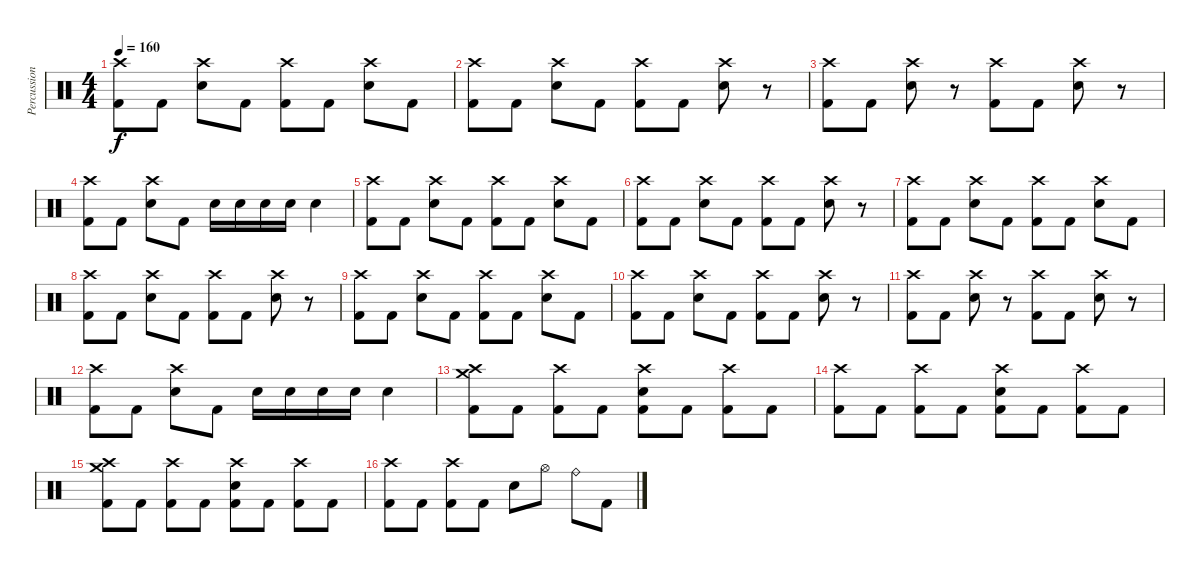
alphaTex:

\track ("Percussion" "Percussion") {instrument percussion}
\staff {score}
\articulation defaults
\ts (4 4)
\tempo 160
\clef neutral
\ks c
("Crash high (hit)" "Kick (hit) 2").8{dy f} "Kick (hit) 2".8 ("Crash high (hit)" "Snare (hit) 2").8 "Kick (hit) 2".8 ("Crash high (hit)" "Kick (hit) 2").8 "Kick (hit) 2".8 ("Crash high (hit)" "Snare (hit) 2").8 "Kick (hit) 2".8 |
("Crash high (hit)" "Kick (hit) 2").8 "Kick (hit) 2".8 ("Crash high (hit)" "Snare (hit) 2").8 "Kick (hit) 2".8 ("Crash high (hit)" "Kick (hit) 2").8 "Kick (hit) 2".8 ("Crash high (hit)" "Snare (hit) 2").8 r.8 |
("Crash high (hit)" "Kick (hit) 2").8 "Kick (hit) 2".8 ("Crash high (hit)" "Snare (hit) 2").8 r.8 ("Crash high (hit)" "Kick (hit) 2").8 "Kick (hit) 2".8 ("Crash high (hit)" "Snare (hit) 2").8 r.8 |
("Crash high (hit)" "Kick (hit) 2").8 "Kick (hit) 2".8 ("Crash high (hit)" "Snare (hit) 2").8 "Kick (hit) 2".8 "Snare (hit) 2".16 "Snare (hit) 2".16 "Snare (hit) 2".16 "Snare (hit) 2".16 "Snare (hit) 2".4 |
("Crash high (hit)" "Kick (hit) 2").8 "Kick (hit) 2".8 ("Crash high (hit)" "Snare (hit) 2").8 "Kick (hit) 2".8 ("Crash high (hit)" "Kick (hit) 2").8 "Kick (hit) 2".8 ("Crash high (hit)" "Snare (hit) 2").8 "Kick (hit) 2".8 |
("Crash high (hit)" "Kick (hit) 2").8 "Kick (hit) 2".8 ("Crash high (hit)" "Snare (hit) 2").8 "Kick (hit) 2".8 ("Crash high (hit)" "Kick (hit) 2").8 "Kick (hit) 2".8 ("Crash high (hit)" "Snare (hit) 2").8 r.8 |
("Crash high (hit)" "Kick (hit) 2").8 "Kick (hit) 2".8 ("Crash high (hit)" "Snare (hit) 2").8 "Kick (hit) 2".8 ("Crash high (hit)" "Kick (hit) 2").8 "Kick (hit) 2".8 ("Crash high (hit)" "Snare (hit) 2").8 "Kick (hit) 2".8 |
("Crash high (hit)" "Kick (hit) 2").8 "Kick (hit) 2".8 ("Crash high (hit)" "Snare (hit) 2").8 "Kick (hit) 2".8 ("Crash high (hit)" "Kick (hit) 2").8 "Kick (hit) 2".8 ("Crash high (hit)" "Snare (hit) 2").8 r.8 |
("Crash high (hit)" "Kick (hit) 2").8 "Kick (hit) 2".8 ("Crash high (hit)" "Snare (hit) 2").8 "Kick (hit) 2".8 ("Crash high (hit)" "Kick (hit) 2").8 "Kick (hit) 2".8 ("Crash high (hit)" "Snare (hit) 2").8 "Kick (hit) 2".8 |
("Crash high (hit)" "Kick (hit) 2").8 "Kick (hit) 2".8 ("Crash high (hit)" "Snare (hit) 2").8 "Kick (hit) 2".8 ("Crash high (hit)" "Kick (hit) 2").8 "Kick (hit) 2".8 ("Crash high (hit)" "Snare (hit) 2").8 r.8 |
("Crash high (hit)" "Kick (hit) 2").8 "Kick (hit) 2".8 ("Crash high (hit)" "Snare (hit) 2").8 r.8 ("Crash high (hit)" "Kick (hit) 2").8 "Kick (hit) 2".8 ("Crash high (hit)" "Snare (hit) 2").8 r.8 |
("Crash high (hit)" "Kick (hit) 2").8 "Kick (hit) 2".8 ("Crash high (hit)" "Snare (hit) 2").8 "Kick (hit) 2".8 "Snare (hit) 2".16 "Snare (hit) 2".16 "Snare (hit) 2".16 "Snare (hit) 2".16 "Snare (hit) 2".4 |
("Crash high (hit)" "Crash medium (hit)" "Kick (hit) 2").8 "Kick (hit) 2".8 ("Crash high (hit)" "Kick (hit) 2").8 "Kick (hit) 2".8 ("Crash high (hit)" "Snare (hit) 2" "Kick (hit) 2").8 "Kick (hit) 2".8 ("Crash high (hit)" "Kick (hit) 2").8 "Kick (hit) 2".8 |
("Crash high (hit)" "Kick (hit) 2").8 "Kick (hit) 2".8 ("Crash high (hit)" "Kick (hit) 2").8 "Kick (hit) 2".8 ("Crash high (hit)" "Snare (hit) 2" "Kick (hit) 2").8 "Kick (hit) 2".8 ("Crash high (hit)" "Kick (hit) 2").8 "Kick (hit) 2".8 |
("Crash high (hit)" "Crash medium (hit)" "Kick (hit) 2").8 "Kick (hit) 2".8 ("Crash high (hit)" "Kick (hit) 2").8 "Kick (hit) 2".8 ("Crash high (hit)" "Snare (hit) 2" "Kick (hit) 2").8 "Kick (hit) 2".8 ("Crash high (hit)" "Kick (hit) 2").8 "Kick (hit) 2".8 |
("Crash high (hit)" "Kick (hit) 2").8 "Kick (hit) 2".8 ("Crash high (hit)" "Kick (hit) 2").8 "Kick (hit) 2".8 "Snare (hit) 2".8 "Hi-Hat (open)".8 "Ride (bell)".8 "Kick (hit) 2".8
